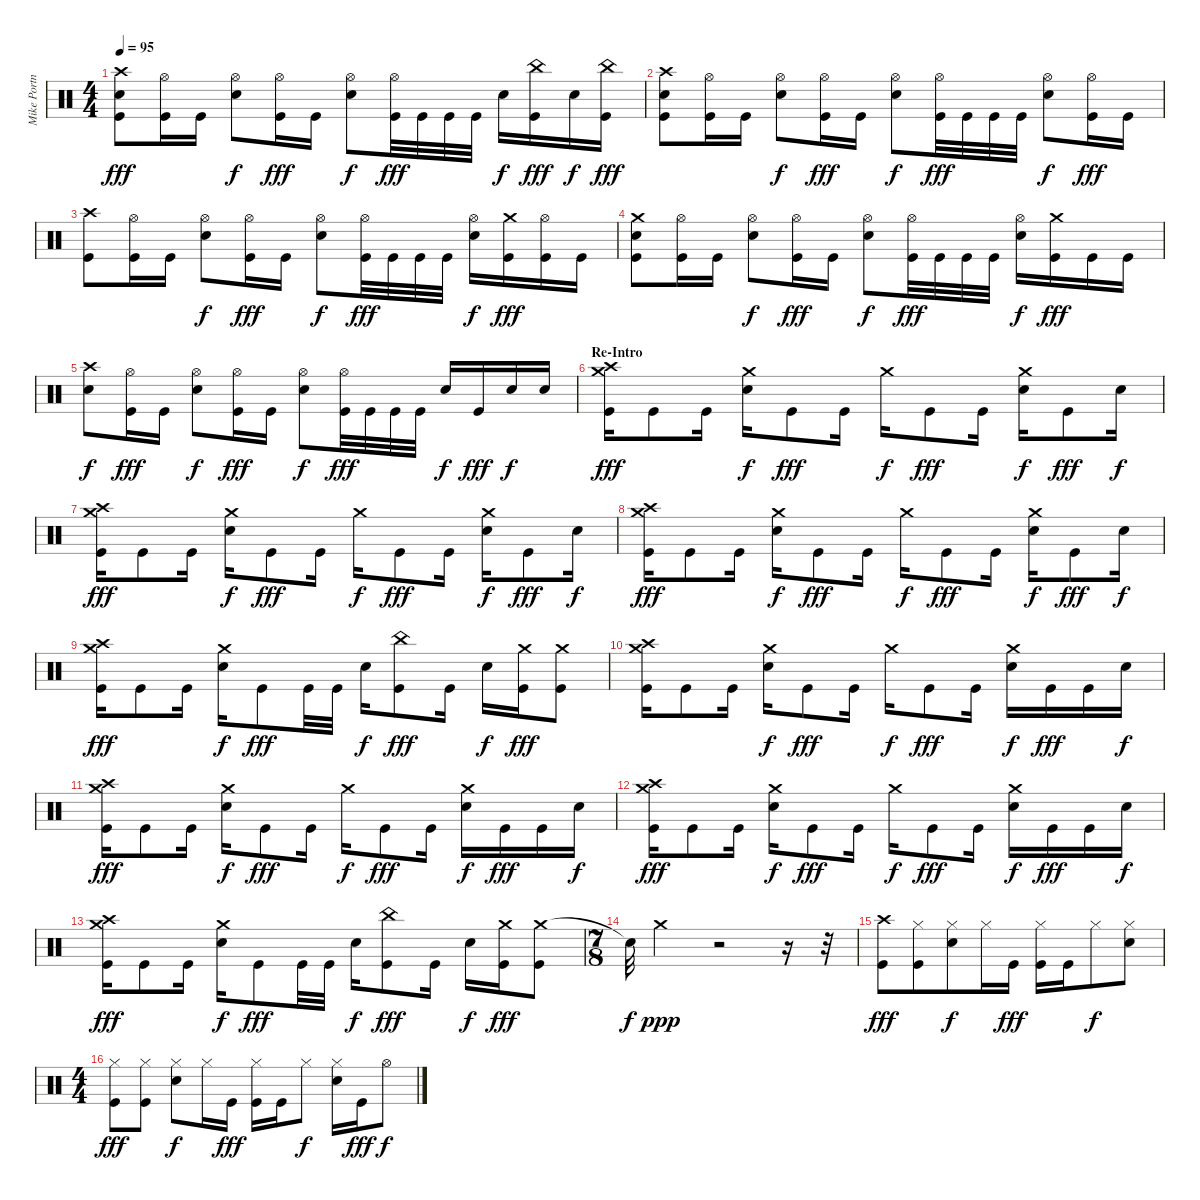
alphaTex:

\track ("Mike Portnoy" "Mike Portn") {instrument percussion}
\staff {score}
\articulation defaults
\ts (4 4)
\tempo 95
\clef neutral
\ks c
("Crash high (hit)" "Electric Snare (hit)" "Kick (hit)").8{dy fff} ("Hi-Hat (open)" "Kick (hit)").16 "Kick (hit)".16 ("Hi-Hat (open)" "Electric Snare (hit)").8{dy f} ("Hi-Hat (open)" "Kick (hit)").16{dy fff} "Kick (hit)".16 ("Hi-Hat (open)" "Electric Snare (hit)").8{dy f} ("Hi-Hat (open)" "Kick (hit)").32{dy fff} "Kick (hit)".32 "Kick (hit)".32 "Kick (hit)".32 "Electric Snare (hit)".16{dy f} ("China (hit)" "Kick (hit)").16{dy fff} "Electric Snare (hit)".16{dy f} ("China (hit)" "Kick (hit)").16{dy fff} |
("Crash high (hit)" "Electric Snare (hit)" "Kick (hit)").8 ("Hi-Hat (open)" "Kick (hit)").16 "Kick (hit)".16 ("Hi-Hat (open)" "Electric Snare (hit)").8{dy f} ("Hi-Hat (open)" "Kick (hit)").16{dy fff} "Kick (hit)".16 ("Hi-Hat (open)" "Electric Snare (hit)").8{dy f} ("Hi-Hat (open)" "Kick (hit)").32{dy fff} "Kick (hit)".32 "Kick (hit)".32 "Kick (hit)".32 ("Hi-Hat (open)" "Electric Snare (hit)").8{dy f} ("Hi-Hat (open)" "Kick (hit)").16{dy fff} "Kick (hit)".16 |
("Crash high (hit)" "Kick (hit)").8 ("Hi-Hat (open)" "Kick (hit)").16 "Kick (hit)".16 ("Hi-Hat (open)" "Electric Snare (hit)").8{dy f} ("Hi-Hat (open)" "Kick (hit)").16{dy fff} "Kick (hit)".16 ("Hi-Hat (open)" "Electric Snare (hit)").8{dy f} ("Hi-Hat (open)" "Kick (hit)").32{dy fff} "Kick (hit)".32 "Kick (hit)".32 "Kick (hit)".32 ("Hi-Hat (open)" "Electric Snare (hit)").16{dy f} ("Crash medium (hit)" "Kick (hit)").16{dy fff} ("Hi-Hat (open)" "Kick (hit)").16 "Kick (hit)".16 |
("Crash medium (hit)" "Electric Snare (hit)" "Kick (hit)").8 ("Hi-Hat (open)" "Kick (hit)").16 "Kick (hit)".16 ("Hi-Hat (open)" "Electric Snare (hit)").8{dy f} ("Hi-Hat (open)" "Kick (hit)").16{dy fff} "Kick (hit)".16 ("Hi-Hat (open)" "Electric Snare (hit)").8{dy f} ("Hi-Hat (open)" "Kick (hit)").32{dy fff} "Kick (hit)".32 "Kick (hit)".32 "Kick (hit)".32 ("Hi-Hat (open)" "Electric Snare (hit)").16{dy f} ("Crash medium (hit)" "Kick (hit)").16{dy fff} "Kick (hit)".16 "Kick (hit)".16 |
("Crash high (hit)" "Electric Snare (hit)").8{dy f} ("Hi-Hat (open)" "Kick (hit)").16{dy fff} "Kick (hit)".16 ("Hi-Hat (open)" "Electric Snare (hit)").8{dy f} ("Hi-Hat (open)" "Kick (hit)").16{dy fff} "Kick (hit)".16 ("Hi-Hat (open)" "Electric Snare (hit)").8{dy f} ("Hi-Hat (open)" "Kick (hit)").32{dy fff} "Kick (hit)".32 "Kick (hit)".32 "Kick (hit)".32 "Electric Snare (hit)".16{dy f} "Kick (hit)".16{dy fff} "Electric Snare (hit)".16{dy f} "Electric Snare (hit)".16 |
\section ("" "Re-Intro")
("Crash high (hit)" "Crash medium (hit)" "Kick (hit)").16{dy fff} "Kick (hit)".8 "Kick (hit)".16 ("Crash medium (hit)" "Electric Snare (hit)").16{dy f} "Kick (hit)".8{dy fff} "Kick (hit)".16 "Crash medium (hit)".16{dy f} "Kick (hit)".8{dy fff} "Kick (hit)".16 ("Crash medium (hit)" "Electric Snare (hit)").16{dy f} "Kick (hit)".8{dy fff} "Electric Snare (hit)".16{dy f} |
("Crash high (hit)" "Crash medium (hit)" "Kick (hit)").16{dy fff} "Kick (hit)".8 "Kick (hit)".16 ("Crash medium (hit)" "Electric Snare (hit)").16{dy f} "Kick (hit)".8{dy fff} "Kick (hit)".16 "Crash medium (hit)".16{dy f} "Kick (hit)".8{dy fff} "Kick (hit)".16 ("Crash medium (hit)" "Electric Snare (hit)").16{dy f} "Kick (hit)".8{dy fff} "Electric Snare (hit)".16{dy f} |
("Crash high (hit)" "Crash medium (hit)" "Kick (hit)").16{dy fff} "Kick (hit)".8 "Kick (hit)".16 ("Crash medium (hit)" "Electric Snare (hit)").16{dy f} "Kick (hit)".8{dy fff} "Kick (hit)".16 "Crash medium (hit)".16{dy f} "Kick (hit)".8{dy fff} "Kick (hit)".16 ("Crash medium (hit)" "Electric Snare (hit)").16{dy f} "Kick (hit)".8{dy fff} "Electric Snare (hit)".16{dy f} |
("Crash high (hit)" "Crash medium (hit)" "Kick (hit)").16{dy fff} "Kick (hit)".8 "Kick (hit)".16 ("Crash medium (hit)" "Electric Snare (hit)").16{dy f} "Kick (hit)".8{dy fff} "Kick (hit)".32 "Kick (hit)".32 "Electric Snare (hit)".16{dy f} ("China (hit)" "Kick (hit)").8{dy fff} "Kick (hit)".16 "Electric Snare (hit)".16{dy f} ("Crash medium (hit)" "Kick (hit)").16{dy fff} ("Crash medium (hit)" "Kick (hit)").8 |
("Crash high (hit)" "Crash medium (hit)" "Kick (hit)").16 "Kick (hit)".8 "Kick (hit)".16 ("Crash medium (hit)" "Electric Snare (hit)").16{dy f} "Kick (hit)".8{dy fff} "Kick (hit)".16 "Crash medium (hit)".16{dy f} "Kick (hit)".8{dy fff} "Kick (hit)".16 ("Crash medium (hit)" "Electric Snare (hit)").16{dy f} "Kick (hit)".16{dy fff} "Kick (hit)".16 "Electric Snare (hit)".16{dy f} |
("Crash high (hit)" "Crash medium (hit)" "Kick (hit)").16{dy fff} "Kick (hit)".8 "Kick (hit)".16 ("Crash medium (hit)" "Electric Snare (hit)").16{dy f} "Kick (hit)".8{dy fff} "Kick (hit)".16 "Crash medium (hit)".16{dy f} "Kick (hit)".8{dy fff} "Kick (hit)".16 ("Crash medium (hit)" "Electric Snare (hit)").16{dy f} "Kick (hit)".16{dy fff} "Kick (hit)".16 "Electric Snare (hit)".16{dy f} |
("Crash high (hit)" "Crash medium (hit)" "Kick (hit)").16{dy fff} "Kick (hit)".8 "Kick (hit)".16 ("Crash medium (hit)" "Electric Snare (hit)").16{dy f} "Kick (hit)".8{dy fff} "Kick (hit)".16 "Crash medium (hit)".16{dy f} "Kick (hit)".8{dy fff} "Kick (hit)".16 ("Crash medium (hit)" "Electric Snare (hit)").16{dy f} "Kick (hit)".16{dy fff} "Kick (hit)".16 "Electric Snare (hit)".16{dy f} |
("Crash high (hit)" "Crash medium (hit)" "Kick (hit)").16{dy fff} "Kick (hit)".8 "Kick (hit)".16 ("Crash medium (hit)" "Electric Snare (hit)").16{dy f} "Kick (hit)".8{dy fff} "Kick (hit)".32 "Kick (hit)".32 "Electric Snare (hit)".16{dy f} ("China (hit)" "Kick (hit)").8{dy fff} "Kick (hit)".16 "Electric Snare (hit)".16{dy f} ("Crash medium (hit)" "Kick (hit)").16{dy fff} ("Crash medium (hit)" "Kick (hit)").8 |
\ts (7 8)
"Snare (hit)"{t}.32{dy f} "Crash medium (hit)".4{dy ppp} r.2 r.16 r.32 |
("Crash high (hit)" "Kick (hit)").8{dy fff} ("Hi-Hat (closed)" "Kick (hit)").8 ("Hi-Hat (closed)" "Electric Snare (hit)").8{dy f} "Hi-Hat (closed)".16 "Kick (hit)".16{dy fff} ("Hi-Hat (closed)" "Kick (hit)").16 "Kick (hit)".16 "Hi-Hat (closed)".8{dy f} ("Hi-Hat (closed)" "Electric Snare (hit)").8 |
\ts (4 4)
("Hi-Hat (closed)" "Kick (hit)").8{dy fff} ("Hi-Hat (closed)" "Kick (hit)").8 ("Hi-Hat (closed)" "Electric Snare (hit)").8{dy f} "Hi-Hat (closed)".16 "Kick (hit)".16{dy fff} ("Hi-Hat (closed)" "Kick (hit)").16 "Kick (hit)".16 "Hi-Hat (closed)".8{dy f} ("Hi-Hat (closed)" "Electric Snare (hit)").16 "Kick (hit)".16{dy fff} "Hi-Hat (open)".8{dy f}
